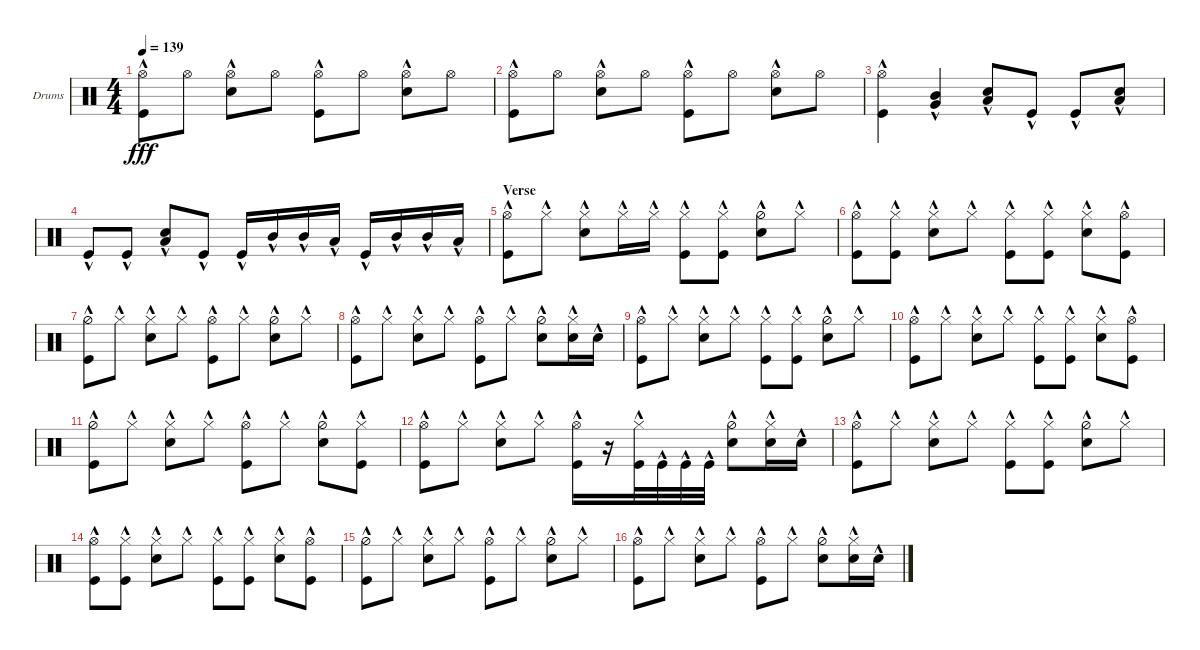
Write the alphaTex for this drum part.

\bracketExtendMode groupsimilarinstruments
\firstSystemTrackNameOrientation horizontal
\otherSystemsTrackNameOrientation horizontal
\track ("Drumkit" "Drums") {instrument percussion}
\staff {score}
\articulation defaults
\ts (4 4)
\tempo 139
\clef neutral
\ks c
("Hi-Hat (open)"{hac} "Kick (hit)"{hac}).8{dy fff} "Hi-Hat (open)".8 ("Hi-Hat (open)"{hac} "Snare (hit) 2"{hac}).8 "Hi-Hat (open)".8 ("Hi-Hat (open)"{hac} "Kick (hit)"{hac}).8 "Hi-Hat (open)".8 ("Hi-Hat (open)"{hac} "Snare (hit) 2"{hac}).8 "Hi-Hat (open)".8 |
("Hi-Hat (open)"{hac} "Kick (hit)"{hac}).8 "Hi-Hat (open)".8 ("Hi-Hat (open)"{hac} "Snare (hit) 2"{hac}).8 "Hi-Hat (open)".8 ("Hi-Hat (open)"{hac} "Kick (hit)"{hac}).8 "Hi-Hat (open)".8 ("Hi-Hat (open)"{hac} "Snare (hit) 2"{hac}).8 "Hi-Hat (open)".8 |
("Kick (hit)"{hac} "Hi-Hat (open)"{hac}).4 ("Mid Tom (hit)"{hac} "Very Low Tom (hit)"{hac}).4 ("Snare (hit) 2"{hac} "Low Tom (hit)"{hac}).8 "Kick (hit)"{hac}.8 "Kick (hit)"{hac}.8 ("Snare (hit) 2"{hac} "Low Tom (hit)"{hac}).8 |
"Kick (hit)"{hac}.8 "Kick (hit)"{hac}.8 ("Snare (hit) 2"{hac} "Low Tom (hit)"{hac}).8 "Kick (hit)"{hac}.8 "Kick (hit)"{hac}.16 "Mid Tom (hit)"{hac}.16 "Mid Tom (hit)"{hac}.16 "Low Tom (hit)"{hac}.16 "Kick (hit)"{hac}.16 "Mid Tom (hit)"{hac}.16 "Mid Tom (hit)"{hac}.16 "Low Tom (hit)"{hac}.16 |
\section ("" "Verse")
("Kick (hit)"{hac} "Hi-Hat (open)"{hac}).8 "Hi-Hat (closed)"{hac}.8 ("Hi-Hat (closed)"{hac} "Snare (hit) 2"{hac}).8 "Hi-Hat (closed)"{hac}.16 "Hi-Hat (closed)"{hac}.16 ("Hi-Hat (closed)"{hac} "Kick (hit)"{hac}).8 ("Hi-Hat (closed)"{hac} "Kick (hit)"{hac}).8 ("Hi-Hat (half)"{hac} "Snare (hit) 2"{hac}).8 "Hi-Hat (closed)"{hac}.8 |
("Kick (hit)"{hac} "Hi-Hat (open)"{hac}).8 ("Hi-Hat (closed)"{hac} "Kick (hit)"{hac}).8 ("Hi-Hat (closed)"{hac} "Snare (hit) 2"{hac}).8 "Hi-Hat (closed)"{hac}.8 ("Hi-Hat (closed)"{hac} "Kick (hit)"{hac}).8 ("Hi-Hat (closed)"{hac} "Kick (hit)"{hac}).8 ("Hi-Hat (closed)"{hac} "Snare (hit) 2"{hac}).8 ("Hi-Hat (open)"{hac} "Kick (hit)"{hac}).8 |
("Kick (hit)"{hac} "Hi-Hat (half)"{hac}).8 "Hi-Hat (closed)"{hac}.8 ("Hi-Hat (closed)"{hac} "Snare (hit) 2"{hac}).8 "Hi-Hat (closed)"{hac}.8 ("Hi-Hat (open)"{hac} "Kick (hit)"{hac}).8 "Hi-Hat (closed)"{hac}.8 ("Hi-Hat (half)"{hac} "Snare (hit) 2"{hac}).8 "Hi-Hat (closed)"{hac}.8 |
("Kick (hit)"{hac} "Hi-Hat (open)"{hac}).8 "Hi-Hat (closed)"{hac}.8 ("Hi-Hat (closed)"{hac} "Snare (hit) 2"{hac}).8 "Hi-Hat (closed)"{hac}.8 ("Hi-Hat (open)"{hac} "Kick (hit)"{hac}).8 "Hi-Hat (closed)"{hac}.8 ("Hi-Hat (half)"{hac} "Snare (hit) 2"{hac}).8 ("Hi-Hat (closed)"{hac} "Snare (hit) 2"{hac}).16 "Snare (hit) 2"{hac}.16 |
("Kick (hit)"{hac} "Hi-Hat (open)"{hac}).8 "Hi-Hat (closed)"{hac}.8 ("Hi-Hat (closed)"{hac} "Snare (hit) 2"{hac}).8 "Hi-Hat (closed)"{hac}.8 ("Hi-Hat (closed)"{hac} "Kick (hit)"{hac}).8 ("Hi-Hat (closed)"{hac} "Kick (hit)"{hac}).8 ("Hi-Hat (half)"{hac} "Snare (hit) 2"{hac}).8 "Hi-Hat (closed)"{hac}.8 |
("Kick (hit)"{hac} "Hi-Hat (open)"{hac}).8 "Hi-Hat (closed)"{hac}.8 ("Hi-Hat (closed)"{hac} "Snare (hit) 2"{hac}).8 "Hi-Hat (closed)"{hac}.8 ("Hi-Hat (closed)"{hac} "Kick (hit)"{hac}).8 ("Hi-Hat (closed)"{hac} "Kick (hit)"{hac}).8 ("Hi-Hat (closed)"{hac} "Snare (hit) 2"{hac}).8 ("Hi-Hat (open)"{hac} "Kick (hit)"{hac}).8 |
("Kick (hit)"{hac} "Hi-Hat (half)"{hac}).8 "Hi-Hat (closed)"{hac}.8 ("Hi-Hat (closed)"{hac} "Snare (hit) 2"{hac}).8 "Hi-Hat (closed)"{hac}.8 ("Hi-Hat (open)"{hac} "Kick (hit)"{hac}).8 "Hi-Hat (closed)"{hac}.8 ("Hi-Hat (half)"{hac} "Snare (hit) 2"{hac}).8 ("Hi-Hat (closed)"{hac} "Kick (hit)"{hac}).8 |
("Kick (hit)"{hac} "Hi-Hat (open)"{hac}).8 "Hi-Hat (closed)"{hac}.8 ("Hi-Hat (closed)"{hac} "Snare (hit) 2"{hac}).8 "Hi-Hat (closed)"{hac}.8 ("Hi-Hat (open)"{hac} "Kick (hit)"{hac}).16 r.16 ("Hi-Hat (closed)"{hac} "Kick (hit)"{hac}).32 "Kick (hit)"{hac}.32 "Kick (hit)"{hac}.32 "Kick (hit)"{hac}.32 ("Hi-Hat (half)"{hac} "Snare (hit) 2"{hac}).8 ("Hi-Hat (closed)"{hac} "Snare (hit) 2"{hac}).16 "Snare (hit) 2"{hac}.16 |
("Kick (hit)"{hac} "Hi-Hat (open)"{hac}).8 "Hi-Hat (closed)"{hac}.8 ("Hi-Hat (closed)"{hac} "Snare (hit) 2"{hac}).8 "Hi-Hat (closed)"{hac}.8 ("Hi-Hat (closed)"{hac} "Kick (hit)"{hac}).8 ("Hi-Hat (closed)"{hac} "Kick (hit)"{hac}).8 ("Hi-Hat (half)"{hac} "Snare (hit) 2"{hac}).8 "Hi-Hat (closed)"{hac}.8 |
("Kick (hit)"{hac} "Hi-Hat (open)"{hac}).8 ("Hi-Hat (closed)"{hac} "Kick (hit)"{hac}).8 ("Hi-Hat (closed)"{hac} "Snare (hit) 2"{hac}).8 "Hi-Hat (closed)"{hac}.8 ("Hi-Hat (closed)"{hac} "Kick (hit)"{hac}).8 ("Hi-Hat (closed)"{hac} "Kick (hit)"{hac}).8 ("Hi-Hat (closed)"{hac} "Snare (hit) 2"{hac}).8 ("Hi-Hat (open)"{hac} "Kick (hit)"{hac}).8 |
("Kick (hit)"{hac} "Hi-Hat (half)"{hac}).8 "Hi-Hat (closed)"{hac}.8 ("Hi-Hat (closed)"{hac} "Snare (hit) 2"{hac}).8 "Hi-Hat (closed)"{hac}.8 ("Hi-Hat (open)"{hac} "Kick (hit)"{hac}).8 "Hi-Hat (closed)"{hac}.8 ("Hi-Hat (half)"{hac} "Snare (hit) 2"{hac}).8 "Hi-Hat (closed)"{hac}.8 |
("Kick (hit)"{hac} "Hi-Hat (open)"{hac}).8 "Hi-Hat (closed)"{hac}.8 ("Hi-Hat (closed)"{hac} "Snare (hit) 2"{hac}).8 "Hi-Hat (closed)"{hac}.8 ("Hi-Hat (open)"{hac} "Kick (hit)"{hac}).8 "Hi-Hat (closed)"{hac}.8 ("Hi-Hat (half)"{hac} "Snare (hit) 2"{hac}).8 ("Hi-Hat (closed)"{hac} "Snare (hit) 2"{hac}).16 "Snare (hit) 2"{hac}.16
